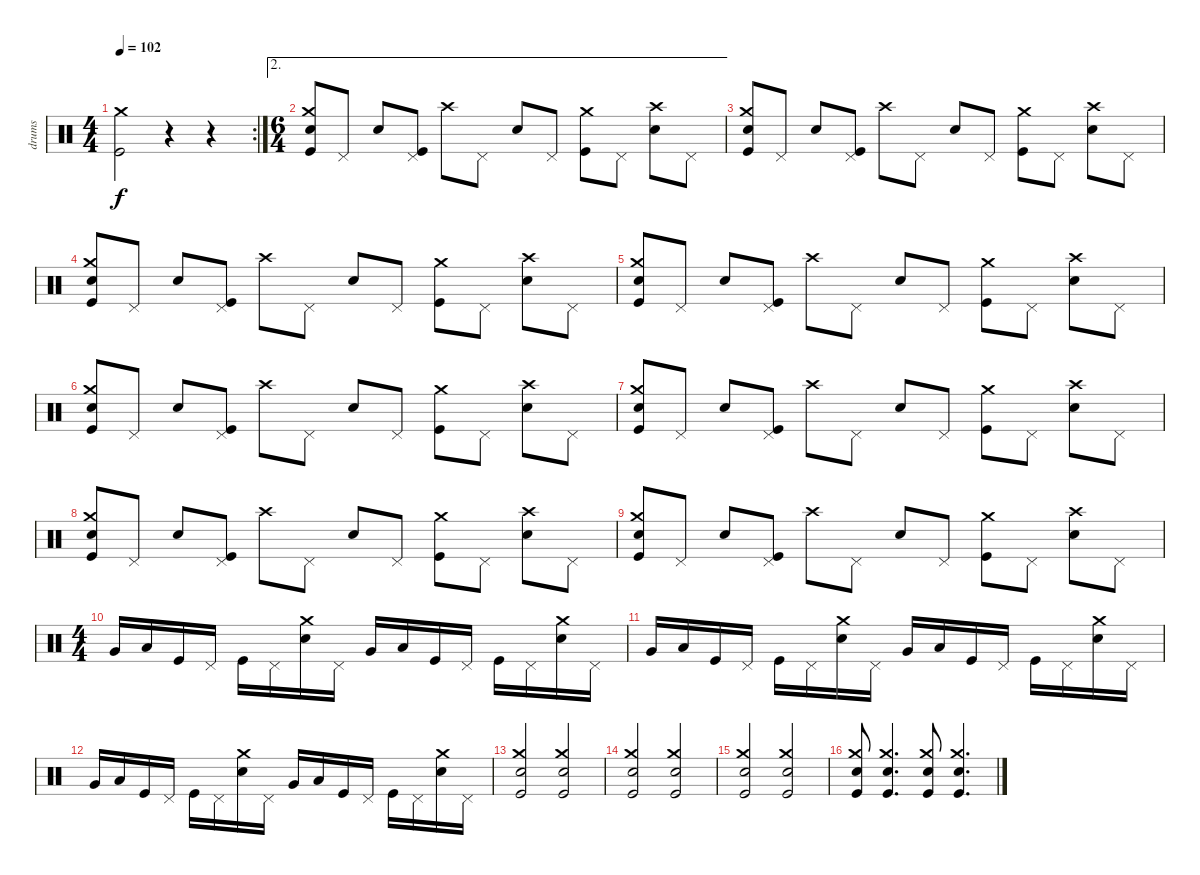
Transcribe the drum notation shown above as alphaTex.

\track ("drums" "drums") {instrument percussion}
\staff {score}
\articulation defaults
\rc 2
\ts (4 4)
\tempo 102
\clef neutral
\ks c
("Kick (hit)" "Crash medium (hit)").2{dy f} r.4 r.4 |
\ae 2
\ts (6 4)
("Snare (hit) 2" "Kick (hit)" "Crash medium (hit)").8 "Pedal Hi-Hat (hit)".8 "Snare (hit) 2".8 ("Kick (hit)" "Pedal Hi-Hat (hit)").8 "Crash high (hit)".8 "Pedal Hi-Hat (hit)".8 "Snare (hit) 2".8 "Pedal Hi-Hat (hit)".8 ("Kick (hit)" "Crash medium (hit)").8 "Pedal Hi-Hat (hit)".8 ("Snare (hit) 2" "Crash high (hit)").8 "Pedal Hi-Hat (hit)".8 |
("Snare (hit) 2" "Kick (hit)" "Crash medium (hit)").8 "Pedal Hi-Hat (hit)".8 "Snare (hit) 2".8 ("Kick (hit)" "Pedal Hi-Hat (hit)").8 "Crash high (hit)".8 "Pedal Hi-Hat (hit)".8 "Snare (hit) 2".8 "Pedal Hi-Hat (hit)".8 ("Kick (hit)" "Crash medium (hit)").8 "Pedal Hi-Hat (hit)".8 ("Snare (hit) 2" "Crash high (hit)").8 "Pedal Hi-Hat (hit)".8 |
("Snare (hit) 2" "Kick (hit)" "Crash medium (hit)").8 "Pedal Hi-Hat (hit)".8 "Snare (hit) 2".8 ("Kick (hit)" "Pedal Hi-Hat (hit)").8 "Crash high (hit)".8 "Pedal Hi-Hat (hit)".8 "Snare (hit) 2".8 "Pedal Hi-Hat (hit)".8 ("Kick (hit)" "Crash medium (hit)").8 "Pedal Hi-Hat (hit)".8 ("Snare (hit) 2" "Crash high (hit)").8 "Pedal Hi-Hat (hit)".8 |
("Snare (hit) 2" "Kick (hit)" "Crash medium (hit)").8 "Pedal Hi-Hat (hit)".8 "Snare (hit) 2".8 ("Kick (hit)" "Pedal Hi-Hat (hit)").8 "Crash high (hit)".8 "Pedal Hi-Hat (hit)".8 "Snare (hit) 2".8 "Pedal Hi-Hat (hit)".8 ("Kick (hit)" "Crash medium (hit)").8 "Pedal Hi-Hat (hit)".8 ("Snare (hit) 2" "Crash high (hit)").8 "Pedal Hi-Hat (hit)".8 |
("Snare (hit) 2" "Kick (hit)" "Crash medium (hit)").8 "Pedal Hi-Hat (hit)".8 "Snare (hit) 2".8 ("Kick (hit)" "Pedal Hi-Hat (hit)").8 "Crash high (hit)".8 "Pedal Hi-Hat (hit)".8 "Snare (hit) 2".8 "Pedal Hi-Hat (hit)".8 ("Kick (hit)" "Crash medium (hit)").8 "Pedal Hi-Hat (hit)".8 ("Snare (hit) 2" "Crash high (hit)").8 "Pedal Hi-Hat (hit)".8 |
("Snare (hit) 2" "Kick (hit)" "Crash medium (hit)").8 "Pedal Hi-Hat (hit)".8 "Snare (hit) 2".8 ("Kick (hit)" "Pedal Hi-Hat (hit)").8 "Crash high (hit)".8 "Pedal Hi-Hat (hit)".8 "Snare (hit) 2".8 "Pedal Hi-Hat (hit)".8 ("Kick (hit)" "Crash medium (hit)").8 "Pedal Hi-Hat (hit)".8 ("Snare (hit) 2" "Crash high (hit)").8 "Pedal Hi-Hat (hit)".8 |
("Snare (hit) 2" "Kick (hit)" "Crash medium (hit)").8 "Pedal Hi-Hat (hit)".8 "Snare (hit) 2".8 ("Kick (hit)" "Pedal Hi-Hat (hit)").8 "Crash high (hit)".8 "Pedal Hi-Hat (hit)".8 "Snare (hit) 2".8 "Pedal Hi-Hat (hit)".8 ("Kick (hit)" "Crash medium (hit)").8 "Pedal Hi-Hat (hit)".8 ("Snare (hit) 2" "Crash high (hit)").8 "Pedal Hi-Hat (hit)".8 |
("Snare (hit) 2" "Kick (hit)" "Crash medium (hit)").8 "Pedal Hi-Hat (hit)".8 "Snare (hit) 2".8 ("Kick (hit)" "Pedal Hi-Hat (hit)").8 "Crash high (hit)".8 "Pedal Hi-Hat (hit)".8 "Snare (hit) 2".8 "Pedal Hi-Hat (hit)".8 ("Kick (hit)" "Crash medium (hit)").8 "Pedal Hi-Hat (hit)".8 ("Snare (hit) 2" "Crash high (hit)").8 "Pedal Hi-Hat (hit)".8 |
\ts (4 4)
"Very Low Tom (hit)".16 "Low Tom (hit)".16 "Kick (hit)".16 "Pedal Hi-Hat (hit)".16 "Kick (hit)".16 "Pedal Hi-Hat (hit)".16 ("Crash medium (hit)" "Snare (hit) 2").16 "Pedal Hi-Hat (hit)".16 "Very Low Tom (hit)".16 "Low Tom (hit)".16 "Kick (hit)".16 "Pedal Hi-Hat (hit)".16 "Kick (hit)".16 "Pedal Hi-Hat (hit)".16 ("Crash medium (hit)" "Snare (hit) 2").16 "Pedal Hi-Hat (hit)".16 |
"Very Low Tom (hit)".16 "Low Tom (hit)".16 "Kick (hit)".16 "Pedal Hi-Hat (hit)".16 "Kick (hit)".16 "Pedal Hi-Hat (hit)".16 ("Crash medium (hit)" "Snare (hit) 2").16 "Pedal Hi-Hat (hit)".16 "Very Low Tom (hit)".16 "Low Tom (hit)".16 "Kick (hit)".16 "Pedal Hi-Hat (hit)".16 "Kick (hit)".16 "Pedal Hi-Hat (hit)".16 ("Crash medium (hit)" "Snare (hit) 2").16 "Pedal Hi-Hat (hit)".16 |
"Very Low Tom (hit)".16 "Low Tom (hit)".16 "Kick (hit)".16 "Pedal Hi-Hat (hit)".16 "Kick (hit)".16 "Pedal Hi-Hat (hit)".16 ("Crash medium (hit)" "Snare (hit) 2").16 "Pedal Hi-Hat (hit)".16 "Very Low Tom (hit)".16 "Low Tom (hit)".16 "Kick (hit)".16 "Pedal Hi-Hat (hit)".16 "Kick (hit)".16 "Pedal Hi-Hat (hit)".16 ("Crash medium (hit)" "Snare (hit) 2").16 "Pedal Hi-Hat (hit)".16 |
("Crash medium (hit)" "Snare (hit) 2" "Kick (hit)").2 ("Crash medium (hit)" "Snare (hit) 2" "Kick (hit)").2 |
("Crash medium (hit)" "Snare (hit) 2" "Kick (hit)").2 ("Crash medium (hit)" "Snare (hit) 2" "Kick (hit)").2 |
("Crash medium (hit)" "Snare (hit) 2" "Kick (hit)").2 ("Crash medium (hit)" "Snare (hit) 2" "Kick (hit)").2 |
("Crash medium (hit)" "Snare (hit) 2" "Kick (hit)").8 ("Crash medium (hit)" "Snare (hit) 2" "Kick (hit)").4{d} ("Crash medium (hit)" "Snare (hit) 2" "Kick (hit)").8 ("Crash medium (hit)" "Snare (hit) 2" "Kick (hit)").4{d}
